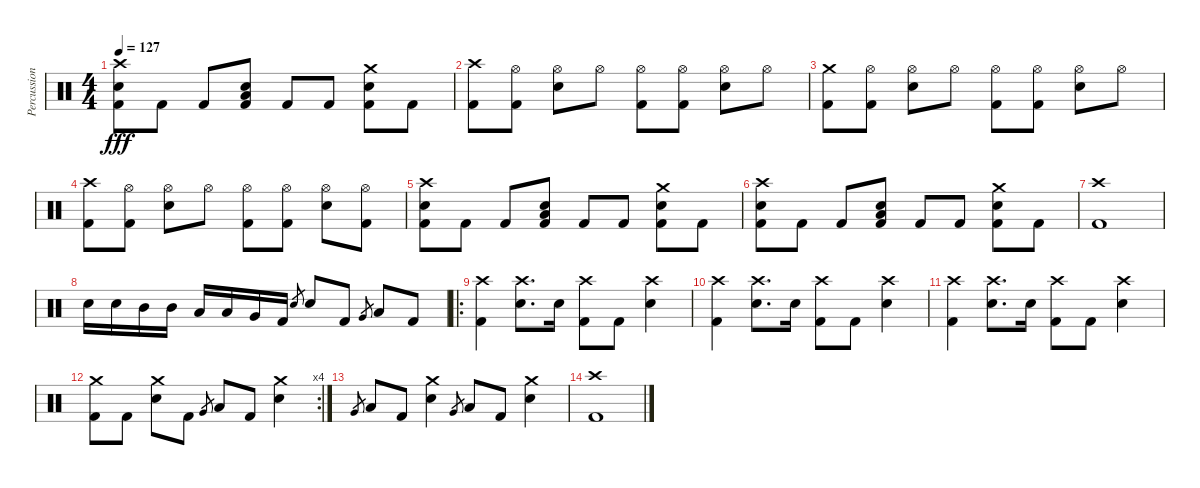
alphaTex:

\track ("Percussion" "Percussion") {instrument percussion}
\staff {score}
\articulation defaults
\ts (4 4)
\tempo 127
\clef neutral
\ks c
("Crash high (hit)" "Snare (hit) 2" "Kick (hit) 2").8{dy fff} "Kick (hit) 2".8 "Kick (hit) 2".8 ("Snare (hit) 2" "Low Tom (hit)" "Kick (hit) 2").8 "Kick (hit) 2".8 "Kick (hit) 2".8 ("Crash medium (hit)" "Snare (hit) 2" "Kick (hit) 2").8 "Kick (hit) 2".8 |
("Crash high (hit)" "Kick (hit) 2").8 ("Hi-Hat (open)" "Kick (hit) 2").8 ("Hi-Hat (open)" "Snare (hit) 2").8 "Hi-Hat (open)".8 ("Hi-Hat (open)" "Kick (hit) 2").8 ("Hi-Hat (open)" "Kick (hit) 2").8 ("Hi-Hat (open)" "Snare (hit) 2").8 "Hi-Hat (open)".8 |
("Crash medium (hit)" "Kick (hit) 2").8 ("Hi-Hat (open)" "Kick (hit) 2").8 ("Hi-Hat (open)" "Snare (hit) 2").8 "Hi-Hat (open)".8 ("Hi-Hat (open)" "Kick (hit) 2").8 ("Hi-Hat (open)" "Kick (hit) 2").8 ("Hi-Hat (open)" "Snare (hit) 2").8 "Hi-Hat (open)".8 |
("Crash high (hit)" "Kick (hit) 2").8 ("Hi-Hat (open)" "Kick (hit) 2").8 ("Hi-Hat (open)" "Snare (hit) 2").8 "Hi-Hat (open)".8 ("Hi-Hat (open)" "Kick (hit) 2").8 ("Hi-Hat (open)" "Kick (hit) 2").8 ("Hi-Hat (open)" "Snare (hit) 2").8 ("Hi-Hat (open)" "Kick (hit) 2").8 |
("Crash high (hit)" "Snare (hit) 2" "Kick (hit) 2").8 "Kick (hit) 2".8 "Kick (hit) 2".8 ("Snare (hit) 2" "Low Tom (hit)" "Kick (hit) 2").8 "Kick (hit) 2".8 "Kick (hit) 2".8 ("Crash medium (hit)" "Snare (hit) 2" "Kick (hit) 2").8 "Kick (hit) 2".8 |
("Crash high (hit)" "Snare (hit) 2" "Kick (hit) 2").8 "Kick (hit) 2".8 "Kick (hit) 2".8 ("Snare (hit) 2" "Low Tom (hit)" "Kick (hit) 2").8 "Kick (hit) 2".8 "Kick (hit) 2".8 ("Crash medium (hit)" "Snare (hit) 2" "Kick (hit) 2").8 "Kick (hit) 2".8 |
("Crash high (hit)" "Kick (hit) 2").1 |
"Snare (hit) 2".16 "Snare (hit) 2".16 "Mid Tom (hit)".16 "Mid Tom (hit)".16 "Low Tom (hit)".16 "Low Tom (hit)".16 "Very Low Tom (hit)".16 "Kick (hit) 2".16 "Snare (hit) 2".8{gr} "Snare (hit) 2".8 "Kick (hit) 2".8 "Very Low Tom (hit)".8{gr} "Low Tom (hit)".8 "Kick (hit) 2".8 |
\ro
("Crash high (hit)" "Kick (hit) 2").4 ("Crash high (hit)" "Snare (hit) 2").8{d} "Snare (hit) 2".16 ("Crash high (hit)" "Kick (hit) 2").8 "Kick (hit) 2".8 ("Crash high (hit)" "Snare (hit) 2").4 |
("Crash high (hit)" "Kick (hit) 2").4 ("Crash high (hit)" "Snare (hit) 2").8{d} "Snare (hit) 2".16 ("Crash high (hit)" "Kick (hit) 2").8 "Kick (hit) 2".8 ("Crash high (hit)" "Snare (hit) 2").4 |
("Crash high (hit)" "Kick (hit) 2").4 ("Crash high (hit)" "Snare (hit) 2").8{d} "Snare (hit) 2".16 ("Crash high (hit)" "Kick (hit) 2").8 "Kick (hit) 2".8 ("Crash high (hit)" "Snare (hit) 2").4 |
\rc 4
("Crash medium (hit)" "Kick (hit) 2").8 "Kick (hit) 2".8 ("Crash medium (hit)" "Snare (hit) 2").8 "Kick (hit) 2".8 "Very Low Tom (hit)".8{gr} "Low Tom (hit)".8 "Kick (hit) 2".8 ("Crash medium (hit)" "Snare (hit) 2").4 |
"Very Low Tom (hit)".8{gr} "Low Tom (hit)".8 "Kick (hit) 2".8 ("Crash medium (hit)" "Snare (hit) 2").4 "Very Low Tom (hit)".8{gr} "Low Tom (hit)".8 "Kick (hit) 2".8 ("Crash medium (hit)" "Snare (hit) 2").4 |
("Crash high (hit)" "Kick (hit) 2").1
